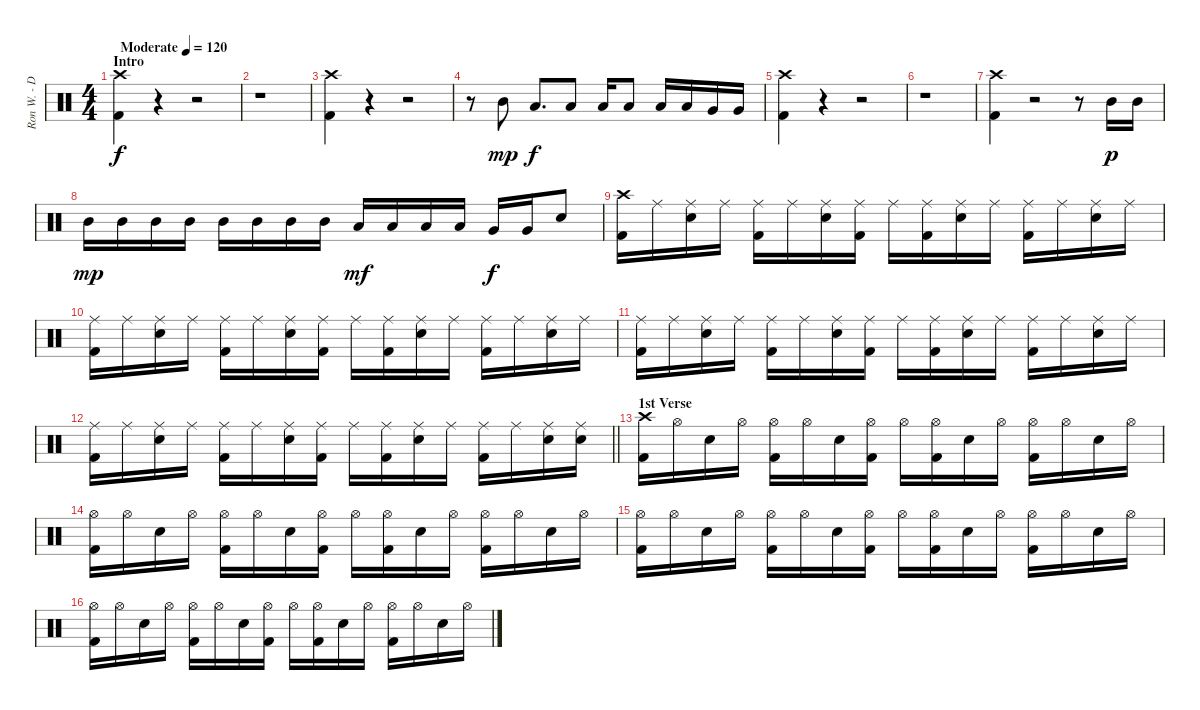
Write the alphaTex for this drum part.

\track ("Ron W. - Drums" "Ron W. - D") {instrument percussion}
\staff {score}
\articulation defaults
\ts (4 4)
\section ("" "Intro")
\tempo (120 "Moderate")
\clef neutral
\ks c
("Crash high (hit)" "Kick (hit) 2").4{dy f} r.4 r.2 |
r.1 |
("Crash high (hit)" "Kick (hit) 2").4 r.4 r.2 |
r.8 "Mid Tom (hit)".8{dy mp} "Low Tom (hit)".8{d dy f} "Low Tom (hit)".8 "Low Tom (hit)".16 "Low Tom (hit)".8 "Low Tom (hit)".16 "Low Tom (hit)".16 "Very Low Tom (hit)".16 "Very Low Tom (hit)".16 |
("Crash high (hit)" "Kick (hit) 2").4 r.4 r.2 |
r.1 |
("Crash high (hit)" "Kick (hit) 2").4 r.2 r.8 "Mid Tom (hit)".16{dy p} "Mid Tom (hit)".16 |
"Mid Tom (hit)".16{dy mp} "Mid Tom (hit)".16 "Mid Tom (hit)".16 "Mid Tom (hit)".16 "Mid Tom (hit)".16 "Mid Tom (hit)".16 "Mid Tom (hit)".16 "Mid Tom (hit)".16 "Low Tom (hit)".16{dy mf} "Low Tom (hit)".16 "Low Tom (hit)".16 "Low Tom (hit)".16 "Very Low Tom (hit)".16{dy f} "Very Low Tom (hit)".16 "Snare (hit) 2".8 |
("Crash high (hit)" "Kick (hit) 2").16 "Ride (middle)".16 ("Ride (middle)" "Snare (hit) 2").16 "Ride (middle)".16 ("Ride (middle)" "Kick (hit) 2").16 "Ride (middle)".16 ("Ride (middle)" "Snare (hit) 2").16 ("Ride (middle)" "Kick (hit) 2").16 "Ride (middle)".16 ("Ride (middle)" "Kick (hit) 2").16 ("Ride (middle)" "Snare (hit) 2").16 "Ride (middle)".16 ("Ride (middle)" "Kick (hit) 2").16 "Ride (middle)".16 ("Ride (middle)" "Snare (hit) 2").16 "Ride (middle)".16 |
("Ride (middle)" "Kick (hit) 2").16 "Ride (middle)".16 ("Ride (middle)" "Snare (hit) 2").16 "Ride (middle)".16 ("Ride (middle)" "Kick (hit) 2").16 "Ride (middle)".16 ("Ride (middle)" "Snare (hit) 2").16 ("Ride (middle)" "Kick (hit) 2").16 "Ride (middle)".16 ("Ride (middle)" "Kick (hit) 2").16 ("Ride (middle)" "Snare (hit) 2").16 "Ride (middle)".16 ("Ride (middle)" "Kick (hit) 2").16 "Ride (middle)".16 ("Ride (middle)" "Snare (hit) 2").16 "Ride (middle)".16 |
("Ride (middle)" "Kick (hit) 2").16 "Ride (middle)".16 ("Ride (middle)" "Snare (hit) 2").16 "Ride (middle)".16 ("Ride (middle)" "Kick (hit) 2").16 "Ride (middle)".16 ("Ride (middle)" "Snare (hit) 2").16 ("Ride (middle)" "Kick (hit) 2").16 "Ride (middle)".16 ("Ride (middle)" "Kick (hit) 2").16 ("Ride (middle)" "Snare (hit) 2").16 "Ride (middle)".16 ("Ride (middle)" "Kick (hit) 2").16 "Ride (middle)".16 ("Ride (middle)" "Snare (hit) 2").16 "Ride (middle)".16 |
\barLineRight lightlight
("Ride (middle)" "Kick (hit) 2").16 "Ride (middle)".16 ("Ride (middle)" "Snare (hit) 2").16 "Ride (middle)".16 ("Ride (middle)" "Kick (hit) 2").16 "Ride (middle)".16 ("Ride (middle)" "Snare (hit) 2").16 ("Ride (middle)" "Kick (hit) 2").16 "Ride (middle)".16 ("Ride (middle)" "Kick (hit) 2").16 ("Ride (middle)" "Snare (hit) 2").16 "Ride (middle)".16 ("Ride (middle)" "Kick (hit) 2").16 "Ride (middle)".16 ("Ride (middle)" "Snare (hit) 2").16 ("Ride (middle)" "Snare (hit) 2").16 |
\section ("" "1st Verse")
("Crash high (hit)" "Kick (hit) 2").16 "Hi-Hat (open)".16 "Snare (hit) 2".16 "Hi-Hat (open)".16 ("Hi-Hat (open)" "Kick (hit) 2").16 "Hi-Hat (open)".16 "Snare (hit) 2".16 ("Hi-Hat (open)" "Kick (hit) 2").16 "Hi-Hat (open)".16 ("Hi-Hat (open)" "Kick (hit) 2").16 "Snare (hit) 2".16 "Hi-Hat (open)".16 ("Hi-Hat (open)" "Kick (hit) 2").16 "Hi-Hat (open)".16 "Snare (hit) 2".16 "Hi-Hat (open)".16 |
("Hi-Hat (open)" "Kick (hit) 2").16 "Hi-Hat (open)".16 "Snare (hit) 2".16 "Hi-Hat (open)".16 ("Hi-Hat (open)" "Kick (hit) 2").16 "Hi-Hat (open)".16 "Snare (hit) 2".16 ("Hi-Hat (open)" "Kick (hit) 2").16 "Hi-Hat (open)".16 ("Hi-Hat (open)" "Kick (hit) 2").16 "Snare (hit) 2".16 "Hi-Hat (open)".16 ("Hi-Hat (open)" "Kick (hit) 2").16 "Hi-Hat (open)".16 "Snare (hit) 2".16 "Hi-Hat (open)".16 |
("Hi-Hat (open)" "Kick (hit) 2").16 "Hi-Hat (open)".16 "Snare (hit) 2".16 "Hi-Hat (open)".16 ("Hi-Hat (open)" "Kick (hit) 2").16 "Hi-Hat (open)".16 "Snare (hit) 2".16 ("Hi-Hat (open)" "Kick (hit) 2").16 "Hi-Hat (open)".16 ("Hi-Hat (open)" "Kick (hit) 2").16 "Snare (hit) 2".16 "Hi-Hat (open)".16 ("Hi-Hat (open)" "Kick (hit) 2").16 "Hi-Hat (open)".16 "Snare (hit) 2".16 "Hi-Hat (open)".16 |
("Hi-Hat (open)" "Kick (hit) 2").16 "Hi-Hat (open)".16 "Snare (hit) 2".16 "Hi-Hat (open)".16 ("Hi-Hat (open)" "Kick (hit) 2").16 "Hi-Hat (open)".16 "Snare (hit) 2".16 ("Hi-Hat (open)" "Kick (hit) 2").16 "Hi-Hat (open)".16 ("Hi-Hat (open)" "Kick (hit) 2").16 "Snare (hit) 2".16 "Hi-Hat (open)".16 ("Hi-Hat (open)" "Kick (hit) 2").16 "Hi-Hat (open)".16 "Snare (hit) 2".16 "Hi-Hat (open)".16
